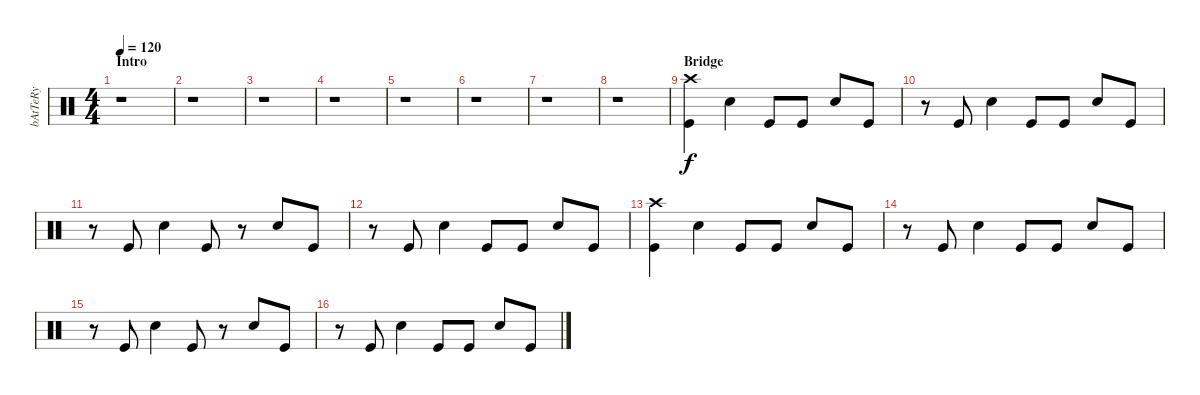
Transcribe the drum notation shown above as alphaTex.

\track ("bAtTeRy" "bAtTeRy") {instrument percussion}
\staff {score}
\articulation defaults
\ts (4 4)
\section ("" "Intro")
\tempo 120
\clef neutral
\ks c
r.1{dy f} |
r.1 |
r.1 |
r.1 |
r.1 |
r.1 |
r.1 |
r.1 |
\section ("" "Bridge")
("Crash high (hit)" "Kick (hit)").4 "Electric Snare (hit)".4 "Kick (hit)".8 "Kick (hit)".8 "Electric Snare (hit)".8 "Kick (hit)".8 |
r.8 "Kick (hit)".8 "Electric Snare (hit)".4 "Kick (hit)".8 "Kick (hit)".8 "Electric Snare (hit)".8 "Kick (hit)".8 |
r.8 "Kick (hit)".8 "Electric Snare (hit)".4 "Kick (hit)".8 r.8 "Electric Snare (hit)".8 "Kick (hit)".8 |
r.8 "Kick (hit)".8 "Electric Snare (hit)".4 "Kick (hit)".8 "Kick (hit)".8 "Electric Snare (hit)".8 "Kick (hit)".8 |
("Crash high (hit)" "Kick (hit)").4 "Electric Snare (hit)".4 "Kick (hit)".8 "Kick (hit)".8 "Electric Snare (hit)".8 "Kick (hit)".8 |
r.8 "Kick (hit)".8 "Electric Snare (hit)".4 "Kick (hit)".8 "Kick (hit)".8 "Electric Snare (hit)".8 "Kick (hit)".8 |
r.8 "Kick (hit)".8 "Electric Snare (hit)".4 "Kick (hit)".8 r.8 "Electric Snare (hit)".8 "Kick (hit)".8 |
r.8 "Kick (hit)".8 "Electric Snare (hit)".4 "Kick (hit)".8 "Kick (hit)".8 "Electric Snare (hit)".8 "Kick (hit)".8
